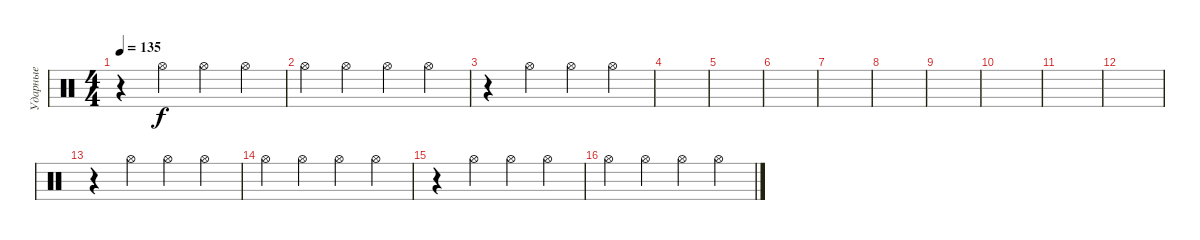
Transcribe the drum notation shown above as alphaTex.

\track ("Ударные" "Ударные") {instrument percussion}
\staff {score}
\articulation defaults
\ts (4 4)
\tempo 135
\clef neutral
\ks c
r.4{dy f} "Hi-Hat (open)".4 "Hi-Hat (open)".4 "Hi-Hat (open)".4 |
"Hi-Hat (open)".4 "Hi-Hat (open)".4 "Hi-Hat (open)".4 "Hi-Hat (open)".4 |
r.4 "Hi-Hat (open)".4 "Hi-Hat (open)".4 "Hi-Hat (open)".4 |
|
|
|
|
|
|
|
|
|
r.4 "Hi-Hat (open)".4 "Hi-Hat (open)".4 "Hi-Hat (open)".4 |
"Hi-Hat (open)".4 "Hi-Hat (open)".4 "Hi-Hat (open)".4 "Hi-Hat (open)".4 |
r.4 "Hi-Hat (open)".4 "Hi-Hat (open)".4 "Hi-Hat (open)".4 |
"Hi-Hat (open)".4 "Hi-Hat (open)".4 "Hi-Hat (open)".4 "Hi-Hat (open)".4
